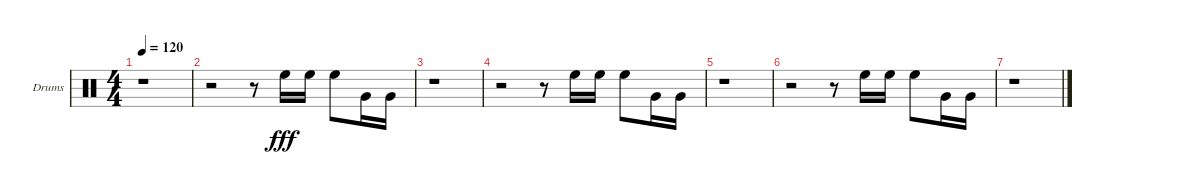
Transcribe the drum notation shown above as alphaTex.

\bracketExtendMode groupsimilarinstruments
\firstSystemTrackNameOrientation horizontal
\otherSystemsTrackNameOrientation horizontal
\track ("Drumkit" "Drums") {instrument percussion}
\staff {score}
\articulation defaults
\ts (4 4)
\tempo 120
\clef neutral
\ks c
r.1{dy fff} |
r.2 r.8 "High Floor Tom (hit)".16 "High Floor Tom (hit)".16 "High Floor Tom (hit)".8 "Very Low Tom (hit)".16 "Very Low Tom (hit)".16 |
r.1 |
r.2 r.8 "High Floor Tom (hit)".16 "High Floor Tom (hit)".16 "High Floor Tom (hit)".8 "Very Low Tom (hit)".16 "Very Low Tom (hit)".16 |
r.1 |
r.2 r.8 "High Floor Tom (hit)".16 "High Floor Tom (hit)".16 "High Floor Tom (hit)".8 "Very Low Tom (hit)".16 "Very Low Tom (hit)".16 |
r.1
